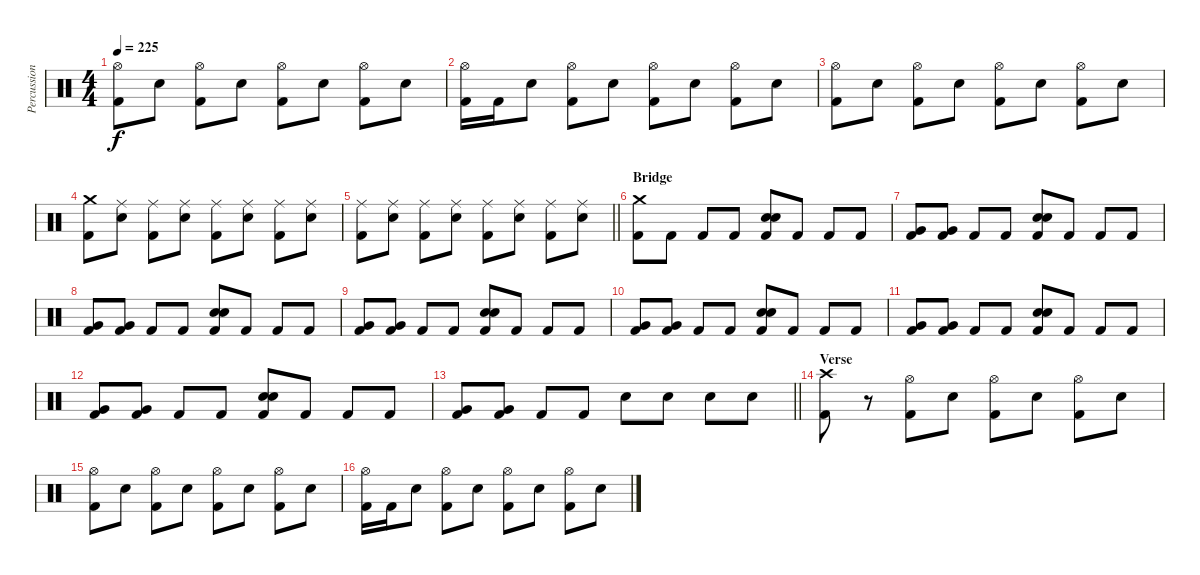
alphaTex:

\track ("Percussion" "Percussion") {instrument percussion}
\staff {score}
\articulation defaults
\ts (4 4)
\tempo 225
\clef neutral
\ks c
("Hi-Hat (open)" "Kick (hit) 2").8{dy f} "Electric Snare (hit)".8 ("Hi-Hat (open)" "Kick (hit) 2").8 "Electric Snare (hit)".8 ("Hi-Hat (open)" "Kick (hit) 2").8 "Electric Snare (hit)".8 ("Hi-Hat (open)" "Kick (hit) 2").8 "Electric Snare (hit)".8 |
("Hi-Hat (open)" "Kick (hit) 2").16 "Kick (hit) 2".16 "Electric Snare (hit)".8 ("Hi-Hat (open)" "Kick (hit) 2").8 "Electric Snare (hit)".8 ("Hi-Hat (open)" "Kick (hit) 2").8 "Electric Snare (hit)".8 ("Hi-Hat (open)" "Kick (hit) 2").8 "Electric Snare (hit)".8 |
("Hi-Hat (open)" "Kick (hit) 2").8 "Electric Snare (hit)".8 ("Hi-Hat (open)" "Kick (hit) 2").8 "Electric Snare (hit)".8 ("Hi-Hat (open)" "Kick (hit) 2").8 "Electric Snare (hit)".8 ("Hi-Hat (open)" "Kick (hit) 2").8 "Electric Snare (hit)".8 |
("Crash medium (hit)" "Kick (hit) 2").8 ("Ride (middle)" "Electric Snare (hit)").8 ("Ride (middle)" "Kick (hit) 2").8 ("Ride (middle)" "Electric Snare (hit)").8 ("Ride (middle)" "Kick (hit) 2").8 ("Ride (middle)" "Electric Snare (hit)").8 ("Ride (middle)" "Kick (hit) 2").8 ("Ride (middle)" "Electric Snare (hit)").8 |
\barLineRight lightlight
("Ride (middle)" "Kick (hit) 2").8 ("Ride (middle)" "Electric Snare (hit)").8 ("Ride (middle)" "Kick (hit) 2").8 ("Ride (middle)" "Electric Snare (hit)").8 ("Ride (middle)" "Kick (hit) 2").8 ("Ride (middle)" "Electric Snare (hit)").8 ("Ride (middle)" "Kick (hit) 2").8 ("Ride (middle)" "Electric Snare (hit)").8 |
\section ("" "Bridge")
("Crash medium (hit)" "Kick (hit) 2").8 "Kick (hit) 2".8 "Kick (hit) 2".8 "Kick (hit) 2".8 ("Electric Snare (hit)" "Electric Snare (hit)" "Kick (hit) 2").8 "Kick (hit) 2".8 "Kick (hit) 2".8 "Kick (hit) 2".8 |
("Very Low Tom (hit)" "Kick (hit) 2").8 ("Very Low Tom (hit)" "Kick (hit) 2").8 "Kick (hit) 2".8 "Kick (hit) 2".8 ("Electric Snare (hit)" "Electric Snare (hit)" "Kick (hit) 2").8 "Kick (hit) 2".8 "Kick (hit) 2".8 "Kick (hit) 2".8 |
("Very Low Tom (hit)" "Kick (hit) 2").8 ("Very Low Tom (hit)" "Kick (hit) 2").8 "Kick (hit) 2".8 "Kick (hit) 2".8 ("Electric Snare (hit)" "Electric Snare (hit)" "Kick (hit) 2").8 "Kick (hit) 2".8 "Kick (hit) 2".8 "Kick (hit) 2".8 |
("Very Low Tom (hit)" "Kick (hit) 2").8 ("Very Low Tom (hit)" "Kick (hit) 2").8 "Kick (hit) 2".8 "Kick (hit) 2".8 ("Electric Snare (hit)" "Electric Snare (hit)" "Kick (hit) 2").8 "Kick (hit) 2".8 "Kick (hit) 2".8 "Kick (hit) 2".8 |
("Very Low Tom (hit)" "Kick (hit) 2").8 ("Very Low Tom (hit)" "Kick (hit) 2").8 "Kick (hit) 2".8 "Kick (hit) 2".8 ("Electric Snare (hit)" "Electric Snare (hit)" "Kick (hit) 2").8 "Kick (hit) 2".8 "Kick (hit) 2".8 "Kick (hit) 2".8 |
("Very Low Tom (hit)" "Kick (hit) 2").8 ("Very Low Tom (hit)" "Kick (hit) 2").8 "Kick (hit) 2".8 "Kick (hit) 2".8 ("Electric Snare (hit)" "Electric Snare (hit)" "Kick (hit) 2").8 "Kick (hit) 2".8 "Kick (hit) 2".8 "Kick (hit) 2".8 |
("Very Low Tom (hit)" "Kick (hit) 2").8 ("Very Low Tom (hit)" "Kick (hit) 2").8 "Kick (hit) 2".8 "Kick (hit) 2".8 ("Electric Snare (hit)" "Electric Snare (hit)" "Kick (hit) 2").8 "Kick (hit) 2".8 "Kick (hit) 2".8 "Kick (hit) 2".8 |
\barLineRight lightlight
("Very Low Tom (hit)" "Kick (hit) 2").8 ("Very Low Tom (hit)" "Kick (hit) 2").8 "Kick (hit) 2".8 "Kick (hit) 2".8 "Electric Snare (hit)".8 "Electric Snare (hit)".8 "Electric Snare (hit)".8 "Electric Snare (hit)".8 |
\section ("" "Verse")
("Crash high (hit)" "Kick (hit) 2").8 r.8 ("Hi-Hat (open)" "Kick (hit) 2").8 "Electric Snare (hit)".8 ("Hi-Hat (open)" "Kick (hit) 2").8 "Electric Snare (hit)".8 ("Hi-Hat (open)" "Kick (hit) 2").8 "Electric Snare (hit)".8 |
("Hi-Hat (open)" "Kick (hit) 2").8 "Electric Snare (hit)".8 ("Hi-Hat (open)" "Kick (hit) 2").8 "Electric Snare (hit)".8 ("Hi-Hat (open)" "Kick (hit) 2").8 "Electric Snare (hit)".8 ("Hi-Hat (open)" "Kick (hit) 2").8 "Electric Snare (hit)".8 |
("Hi-Hat (open)" "Kick (hit) 2").16 "Kick (hit) 2".16 "Electric Snare (hit)".8 ("Hi-Hat (open)" "Kick (hit) 2").8 "Electric Snare (hit)".8 ("Hi-Hat (open)" "Kick (hit) 2").8 "Electric Snare (hit)".8 ("Hi-Hat (open)" "Kick (hit) 2").8 "Electric Snare (hit)".8
